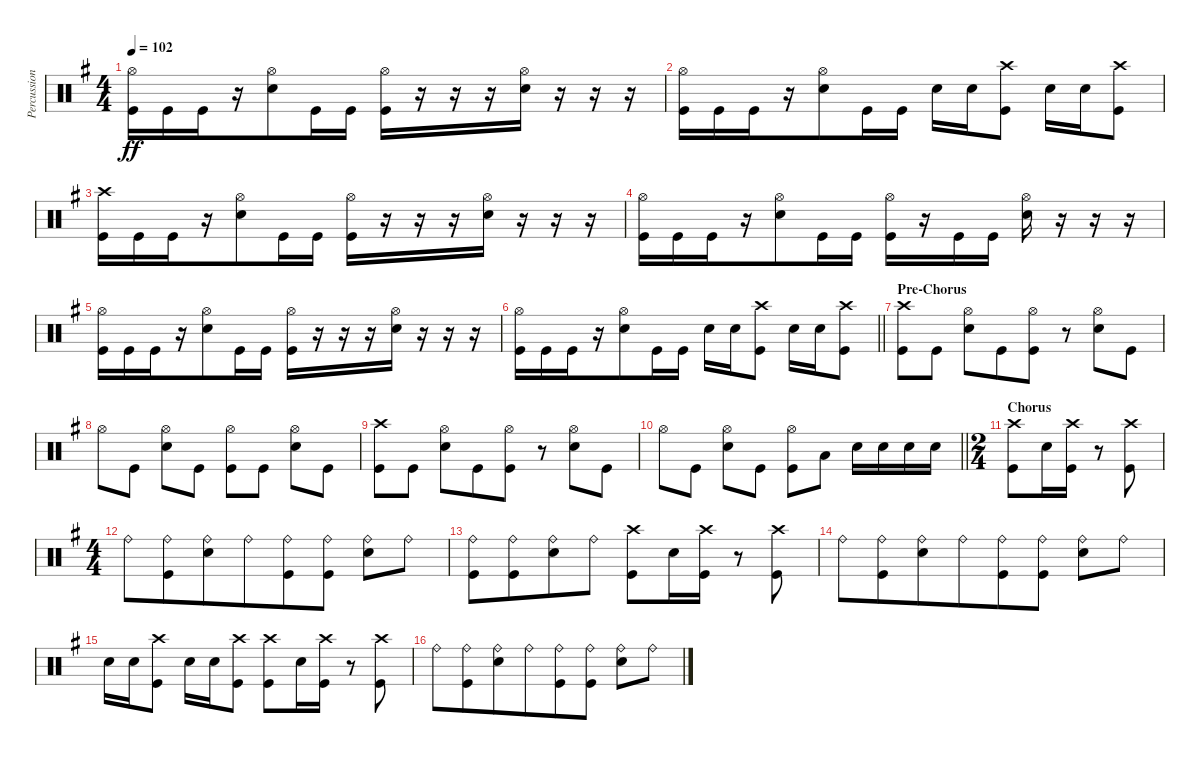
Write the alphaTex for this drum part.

\track ("Percussion" "Percussion") {instrument percussion}
\staff {score}
\articulation defaults
\ts (4 4)
\tempo 102
\clef neutral
\ks g
("Kick (hit)" "Hi-Hat (open)").16{dy ff beam merge} "Kick (hit)".16 "Kick (hit)".16{beam merge} r.16 ("Electric Snare (hit)" "Hi-Hat (open)").8 "Kick (hit)".16{beam merge} "Kick (hit)".16 ("Kick (hit)" "Hi-Hat (open)").16{beam merge} r.16 r.16{beam merge} r.16 ("Electric Snare (hit)" "Hi-Hat (open)").16 r.16{beam merge} r.16{beam merge} r.16 |
("Kick (hit)" "Hi-Hat (open)").16{beam merge} "Kick (hit)".16 "Kick (hit)".16{beam merge} r.16 ("Electric Snare (hit)" "Hi-Hat (open)").8 "Kick (hit)".16{beam merge} "Kick (hit)".16 "Electric Snare (hit)".16 "Electric Snare (hit)".16 ("Kick (hit)" "Crash high (hit)").8 "Electric Snare (hit)".16 "Electric Snare (hit)".16 ("Kick (hit)" "Crash high (hit)").8 |
("Kick (hit)" "Crash high (hit)").16{beam merge} "Kick (hit)".16 "Kick (hit)".16{beam merge} r.16 ("Electric Snare (hit)" "Hi-Hat (open)").8 "Kick (hit)".16{beam merge} "Kick (hit)".16 ("Kick (hit)" "Hi-Hat (open)").16{beam merge} r.16 r.16{beam merge} r.16 ("Electric Snare (hit)" "Hi-Hat (open)").16 r.16{beam merge} r.16{beam merge} r.16 |
("Kick (hit)" "Hi-Hat (open)").16{beam merge} "Kick (hit)".16 "Kick (hit)".16{beam merge} r.16 ("Electric Snare (hit)" "Hi-Hat (open)").8 "Kick (hit)".16{beam merge} "Kick (hit)".16 ("Kick (hit)" "Hi-Hat (open)").16{beam merge} r.16 "Kick (hit)".16{beam merge} "Kick (hit)".16 ("Electric Snare (hit)" "Hi-Hat (open)").16 r.16{beam merge} r.16{beam merge} r.16 |
("Kick (hit)" "Hi-Hat (open)").16{beam merge} "Kick (hit)".16 "Kick (hit)".16{beam merge} r.16 ("Electric Snare (hit)" "Hi-Hat (open)").8 "Kick (hit)".16{beam merge} "Kick (hit)".16 ("Kick (hit)" "Hi-Hat (open)").16{beam merge} r.16 r.16{beam merge} r.16 ("Electric Snare (hit)" "Hi-Hat (open)").16 r.16{beam merge} r.16{beam merge} r.16 |
\barLineRight lightlight
("Kick (hit)" "Hi-Hat (open)").16{beam merge} "Kick (hit)".16 "Kick (hit)".16{beam merge} r.16 ("Electric Snare (hit)" "Hi-Hat (open)").8 "Kick (hit)".16{beam merge} "Kick (hit)".16 "Electric Snare (hit)".16 "Electric Snare (hit)".16 ("Kick (hit)" "Crash high (hit)").8 "Electric Snare (hit)".16 "Electric Snare (hit)".16 ("Kick (hit)" "Crash high (hit)").8 |
\section ("" "Pre-Chorus")
("Kick (hit)" "Crash high (hit)").8 "Kick (hit)".8 ("Electric Snare (hit)" "Hi-Hat (open)").8{beam merge} "Kick (hit)".8{beam merge} ("Kick (hit)" "Hi-Hat (open)").8 r.8 ("Electric Snare (hit)" "Hi-Hat (open)").8{beam merge} "Kick (hit)".8 |
"Hi-Hat (open)".8{beam merge} "Kick (hit)".8 ("Electric Snare (hit)" "Hi-Hat (open)").8 "Kick (hit)".8 ("Kick (hit)" "Hi-Hat (open)").8{beam merge} "Kick (hit)".8 ("Hi-Hat (open)" "Electric Snare (hit)").8 "Kick (hit)".8 |
("Kick (hit)" "Crash high (hit)").8 "Kick (hit)".8 ("Electric Snare (hit)" "Hi-Hat (open)").8{beam merge} "Kick (hit)".8{beam merge} ("Kick (hit)" "Hi-Hat (open)").8 r.8 ("Electric Snare (hit)" "Hi-Hat (open)").8{beam merge} "Kick (hit)".8 |
\barLineRight lightlight "Hi-Hat (open)".8{beam merge} "Kick (hit)".8
("Electric Snare (hit)" "Hi-Hat (open)").8 "Kick (hit)".8 ("Kick (hit)" "Hi-Hat (open)").8{beam merge} "Low Tom (hit)".8 "Electric Snare (hit)".16 "Electric Snare (hit)".16 "Electric Snare (hit)".16{beam merge} "Electric Snare (hit)".16 |
\ts (2 4)
\section ("" "Chorus")
("Kick (hit)" "Crash high (hit)").8{beam merge} "Electric Snare (hit)".16{beam merge} ("Kick (hit)" "Crash high (hit)").16 r.8 ("Kick (hit)" "Crash high (hit)").8 |
\ts (4 4)
"Ride (bell)".8 ("Ride (bell)" "Kick (hit)").8{beam merge} ("Ride (bell)" "Electric Snare (hit)").8{beam merge} "Ride (bell)".8{beam merge} ("Ride (bell)" "Kick (hit)").8{beam merge} ("Ride (bell)" "Kick (hit)").8 ("Ride (bell)" "Electric Snare (hit)").8{beam merge} "Ride (bell)".8 |
("Ride (bell)" "Kick (hit)").8 ("Ride (bell)" "Kick (hit)").8{beam merge} ("Ride (bell)" "Electric Snare (hit)").8{beam merge} "Ride (bell)".8 ("Kick (hit)" "Crash high (hit)").8{beam merge} "Electric Snare (hit)".16{beam merge} ("Kick (hit)" "Crash high (hit)").16 r.8 ("Kick (hit)" "Crash high (hit)").8 |
"Ride (bell)".8 ("Ride (bell)" "Kick (hit)").8{beam merge} ("Ride (bell)" "Electric Snare (hit)").8{beam merge} "Ride (bell)".8{beam merge} ("Ride (bell)" "Kick (hit)").8{beam merge} ("Ride (bell)" "Kick (hit)").8 ("Ride (bell)" "Electric Snare (hit)").8{beam merge} "Ride (bell)".8 |
"Electric Snare (hit)".16 "Electric Snare (hit)".16 ("Kick (hit)" "Crash high (hit)").8 "Electric Snare (hit)".16 "Electric Snare (hit)".16 ("Kick (hit)" "Crash high (hit)").8 ("Kick (hit)" "Crash high (hit)").8{beam merge} "Electric Snare (hit)".16{beam merge} ("Kick (hit)" "Crash high (hit)").16 r.8 ("Kick (hit)" "Crash high (hit)").8 |
"Ride (bell)".8 ("Ride (bell)" "Kick (hit)").8{beam merge} ("Ride (bell)" "Electric Snare (hit)").8{beam merge} "Ride (bell)".8{beam merge} ("Ride (bell)" "Kick (hit)").8{beam merge} ("Ride (bell)" "Kick (hit)").8 ("Ride (bell)" "Electric Snare (hit)").8{beam merge} "Ride (bell)".8
